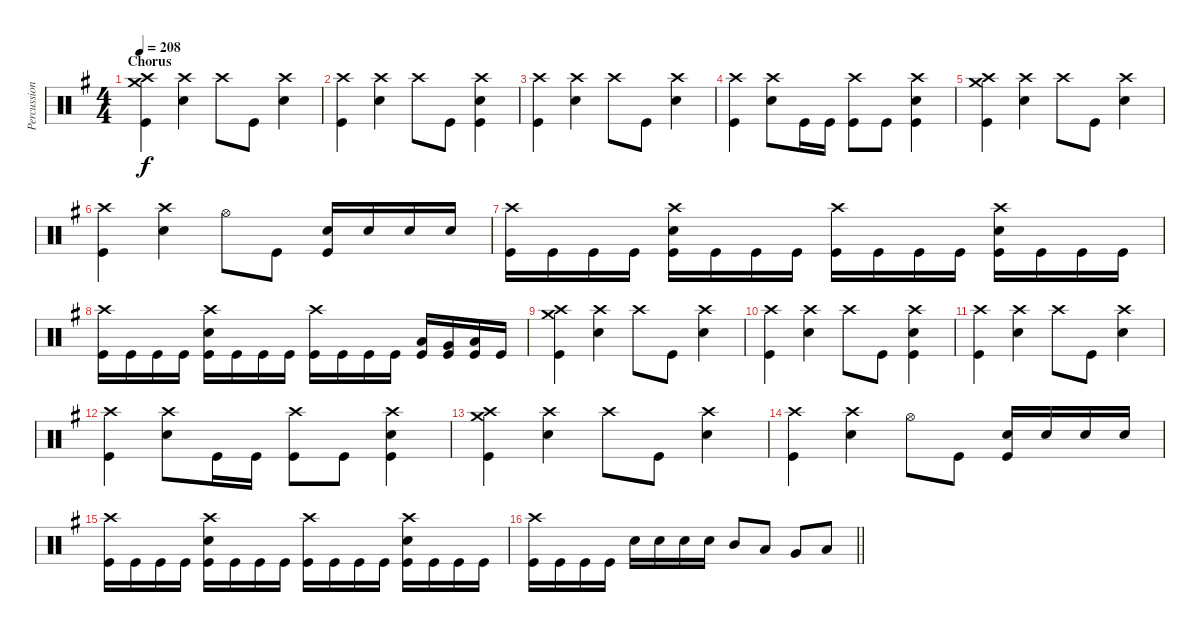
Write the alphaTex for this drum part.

\track ("Percussion" "Percussion") {instrument percussion}
\staff {score}
\articulation defaults
\ts (4 4)
\section ("" "Chorus")
\tempo 208
\clef neutral
\ks g
("Crash high (hit)" "Crash medium (hit)" "Kick (hit)").4{dy f} ("Crash high (hit)" "Electric Snare (hit)").4 "Crash high (hit)".8 "Kick (hit)".8 ("Crash high (hit)" "Electric Snare (hit)").4 |
("Crash high (hit)" "Kick (hit)").4 ("Crash high (hit)" "Electric Snare (hit)").4 "Crash high (hit)".8 "Kick (hit)".8 ("Crash high (hit)" "Electric Snare (hit)" "Kick (hit)").4 |
("Crash high (hit)" "Kick (hit)").4 ("Crash high (hit)" "Electric Snare (hit)").4 "Crash high (hit)".8 "Kick (hit)".8 ("Crash high (hit)" "Electric Snare (hit)").4 |
("Crash high (hit)" "Kick (hit)").4 ("Crash high (hit)" "Electric Snare (hit)").8 "Kick (hit)".16 "Kick (hit)".16 ("Crash high (hit)" "Kick (hit)").8 "Kick (hit)".8 ("Crash high (hit)" "Electric Snare (hit)" "Kick (hit)").4 |
("Crash high (hit)" "Crash medium (hit)" "Kick (hit)").4 ("Crash high (hit)" "Electric Snare (hit)").4 "Crash high (hit)".8 "Kick (hit)".8 ("Crash high (hit)" "Electric Snare (hit)").4 |
("Crash high (hit)" "Kick (hit)").4 ("Crash high (hit)" "Electric Snare (hit)").4 "Hi-Hat (open)".8 "Kick (hit)".8 ("Electric Snare (hit)" "Kick (hit)").16 "Electric Snare (hit)".16 "Electric Snare (hit)".16 "Electric Snare (hit)".16 |
("Crash high (hit)" "Kick (hit)").16 "Kick (hit)".16 "Kick (hit)".16 "Kick (hit)".16 ("Crash high (hit)" "Electric Snare (hit)" "Kick (hit)").16 "Kick (hit)".16 "Kick (hit)".16 "Kick (hit)".16 ("Crash high (hit)" "Kick (hit)").16 "Kick (hit)".16 "Kick (hit)".16 "Kick (hit)".16 ("Crash high (hit)" "Electric Snare (hit)" "Kick (hit)").16 "Kick (hit)".16 "Kick (hit)".16 "Kick (hit)".16 |
("Crash high (hit)" "Kick (hit)").16 "Kick (hit)".16 "Kick (hit)".16 "Kick (hit)".16 ("Crash high (hit)" "Electric Snare (hit)" "Kick (hit)").16 "Kick (hit)".16 "Kick (hit)".16 "Kick (hit)".16 ("Crash high (hit)" "Kick (hit)").16 "Kick (hit)".16 "Kick (hit)".16 "Kick (hit)".16 ("Low Tom (hit)" "Kick (hit)").16 ("Very Low Tom (hit)" "Kick (hit)").16 ("Low Floor Tom (hit)" "Kick (hit)").16 "Kick (hit)".16 |
("Crash high (hit)" "Crash medium (hit)" "Kick (hit)").4 ("Crash high (hit)" "Electric Snare (hit)").4 "Crash high (hit)".8 "Kick (hit)".8 ("Crash high (hit)" "Electric Snare (hit)").4 |
("Crash high (hit)" "Kick (hit)").4 ("Crash high (hit)" "Electric Snare (hit)").4 "Crash high (hit)".8 "Kick (hit)".8 ("Crash high (hit)" "Electric Snare (hit)" "Kick (hit)").4 |
("Crash high (hit)" "Kick (hit)").4 ("Crash high (hit)" "Electric Snare (hit)").4 "Crash high (hit)".8 "Kick (hit)".8 ("Crash high (hit)" "Electric Snare (hit)").4 |
("Crash high (hit)" "Kick (hit)").4 ("Crash high (hit)" "Electric Snare (hit)").8 "Kick (hit)".16 "Kick (hit)".16 ("Crash high (hit)" "Kick (hit)").8 "Kick (hit)".8 ("Crash high (hit)" "Electric Snare (hit)" "Kick (hit)").4 |
("Crash high (hit)" "Crash medium (hit)" "Kick (hit)").4 ("Crash high (hit)" "Electric Snare (hit)").4 "Crash high (hit)".8 "Kick (hit)".8 ("Crash high (hit)" "Electric Snare (hit)").4 |
("Crash high (hit)" "Kick (hit)").4 ("Crash high (hit)" "Electric Snare (hit)").4 "Hi-Hat (open)".8 "Kick (hit)".8 ("Electric Snare (hit)" "Kick (hit)").16 "Electric Snare (hit)".16 "Electric Snare (hit)".16 "Electric Snare (hit)".16 |
("Crash high (hit)" "Kick (hit)").16 "Kick (hit)".16 "Kick (hit)".16 "Kick (hit)".16 ("Crash high (hit)" "Electric Snare (hit)" "Kick (hit)").16 "Kick (hit)".16 "Kick (hit)".16 "Kick (hit)".16 ("Crash high (hit)" "Kick (hit)").16 "Kick (hit)".16 "Kick (hit)".16 "Kick (hit)".16 ("Crash high (hit)" "Electric Snare (hit)" "Kick (hit)").16 "Kick (hit)".16 "Kick (hit)".16 "Kick (hit)".16 |
\barLineRight lightlight
("Crash high (hit)" "Kick (hit)").16 "Kick (hit)".16 "Kick (hit)".16 "Kick (hit)".16 "Electric Snare (hit)".16 "Electric Snare (hit)".16 "Electric Snare (hit)".16 "Electric Snare (hit)".16 "Mid Tom (hit)".8 "Low Tom (hit)".8 "Very Low Tom (hit)".8 "Low Floor Tom (hit)".8
